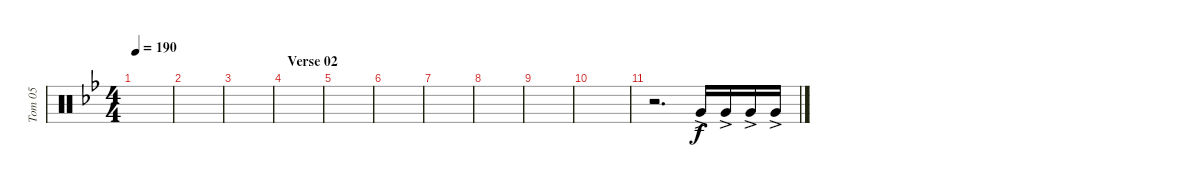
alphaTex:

\track ("Tom 05" "Tom 05") {instrument percussion}
\staff {score}
\articulation defaults
\ts (4 4)
\tempo 190
\clef neutral
\ks bb
|
|
|
\section ("" "Verse 02")
|
|
|
|
|
|
|
r.2{d} "Very Low Tom (hit)"{ac}.16 "Very Low Tom (hit)"{ac}.16 "Very Low Tom (hit)"{ac}.16 "Very Low Tom (hit)"{ac}.16
